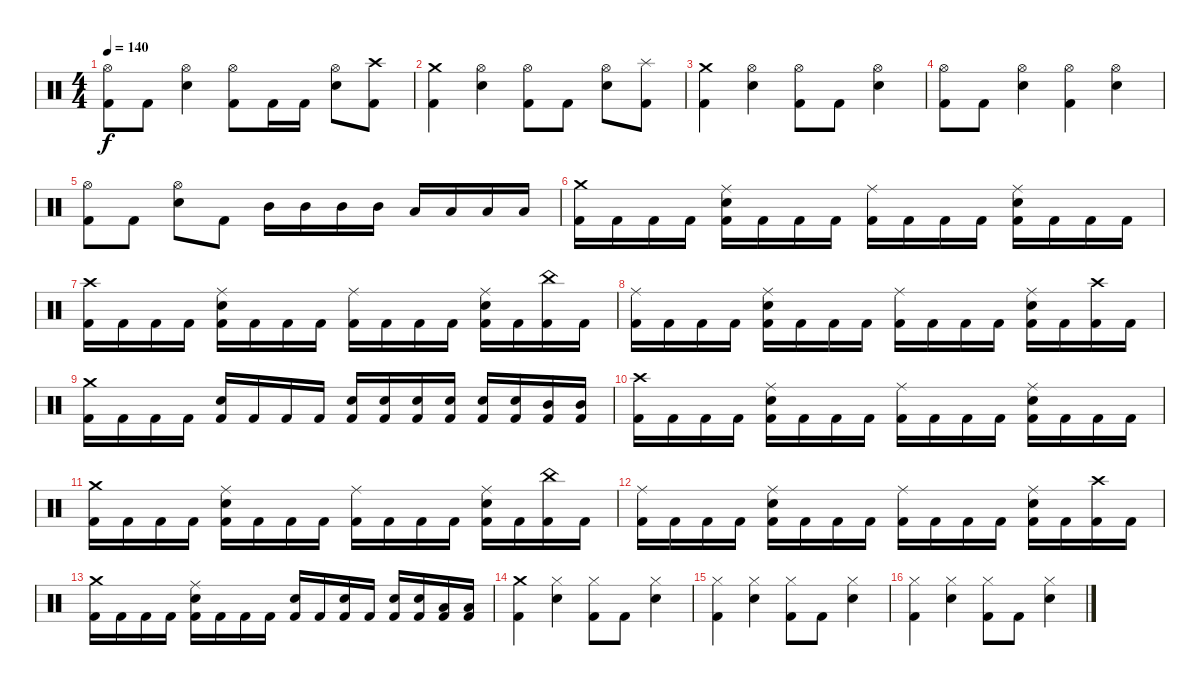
\track "" {instrument percussion}
\staff {score}
\articulation defaults
\ts (4 4)
\tempo 140
\clef neutral
\ks c
("Hi-Hat (open)" "Kick (hit) 2").8{dy f} "Kick (hit) 2".8 ("Hi-Hat (open)" "Electric Snare (hit)").4 ("Hi-Hat (open)" "Kick (hit) 2").8 "Kick (hit) 2".16 "Kick (hit) 2".16 ("Hi-Hat (open)" "Electric Snare (hit)").8 ("Crash high (hit)" "Kick (hit) 2").8 |
("Crash medium (hit)" "Kick (hit) 2").4 ("Hi-Hat (open)" "Electric Snare (hit)").4 ("Hi-Hat (open)" "Kick (hit) 2").8 "Kick (hit) 2".8 ("Hi-Hat (open)" "Electric Snare (hit)").8 ("Splash (hit)" "Kick (hit) 2").8 |
("Crash medium (hit)" "Kick (hit) 2").4 ("Hi-Hat (open)" "Electric Snare (hit)").4 ("Hi-Hat (open)" "Kick (hit) 2").8 "Kick (hit) 2".8 ("Hi-Hat (open)" "Electric Snare (hit)").4 |
("Hi-Hat (open)" "Kick (hit) 2").8 "Kick (hit) 2".8 ("Hi-Hat (open)" "Electric Snare (hit)").4 ("Hi-Hat (open)" "Kick (hit) 2").4 ("Hi-Hat (open)" "Electric Snare (hit)").4 |
("Hi-Hat (open)" "Kick (hit) 2").8 "Kick (hit) 2".8 ("Hi-Hat (open)" "Electric Snare (hit)").8 "Kick (hit) 2".8 "Mid Tom (hit)".16 "Mid Tom (hit)".16 "Mid Tom (hit)".16 "Mid Tom (hit)".16 "Low Tom (hit)".16 "Low Tom (hit)".16 "Low Tom (hit)".16 "Low Tom (hit)".16 |
("Crash medium (hit)" "Kick (hit) 2").16 "Kick (hit) 2".16 "Kick (hit) 2".16 "Kick (hit) 2".16 ("Ride (middle)" "Electric Snare (hit)" "Kick (hit) 2").16 "Kick (hit) 2".16 "Kick (hit) 2".16 "Kick (hit) 2".16 ("Ride (middle)" "Kick (hit) 2").16 "Kick (hit) 2".16 "Kick (hit) 2".16 "Kick (hit) 2".16 ("Ride (middle)" "Electric Snare (hit)" "Kick (hit) 2").16 "Kick (hit) 2".16 "Kick (hit) 2".16 "Kick (hit) 2".16 |
("Crash high (hit)" "Kick (hit) 2").16 "Kick (hit) 2".16 "Kick (hit) 2".16 "Kick (hit) 2".16 ("Ride (middle)" "Electric Snare (hit)" "Kick (hit) 2").16 "Kick (hit) 2".16 "Kick (hit) 2".16 "Kick (hit) 2".16 ("Ride (middle)" "Kick (hit) 2").16 "Kick (hit) 2".16 "Kick (hit) 2".16 "Kick (hit) 2".16 ("Ride (middle)" "Electric Snare (hit)" "Kick (hit) 2").16 "Kick (hit) 2".16 ("China (hit)" "Kick (hit) 2").16 "Kick (hit) 2".16 |
("Ride (middle)" "Kick (hit) 2").16 "Kick (hit) 2".16 "Kick (hit) 2".16 "Kick (hit) 2".16 ("Ride (middle)" "Electric Snare (hit)" "Kick (hit) 2").16 "Kick (hit) 2".16 "Kick (hit) 2".16 "Kick (hit) 2".16 ("Ride (middle)" "Kick (hit) 2").16 "Kick (hit) 2".16 "Kick (hit) 2".16 "Kick (hit) 2".16 ("Ride (middle)" "Electric Snare (hit)" "Kick (hit) 2").16 "Kick (hit) 2".16 ("Crash high (hit)" "Kick (hit) 2").16 "Kick (hit) 2".16 |
("Crash medium (hit)" "Kick (hit) 2").16 "Kick (hit) 2".16 "Kick (hit) 2".16 "Kick (hit) 2".16 ("Electric Snare (hit)" "Kick (hit) 2").16 "Kick (hit) 2".16 "Kick (hit) 2".16 "Kick (hit) 2".16 ("Electric Snare (hit)" "Kick (hit) 2").16 ("Electric Snare (hit)" "Kick (hit) 2").16 ("Electric Snare (hit)" "Kick (hit) 2").16 ("Electric Snare (hit)" "Kick (hit) 2").16 ("Electric Snare (hit)" "Kick (hit) 2").16 ("Electric Snare (hit)" "Kick (hit) 2").16 ("Mid Tom (hit)" "Kick (hit) 2").16 ("Mid Tom (hit)" "Kick (hit) 2").16 |
("Crash high (hit)" "Kick (hit) 2").16 "Kick (hit) 2".16 "Kick (hit) 2".16 "Kick (hit) 2".16 ("Ride (middle)" "Electric Snare (hit)" "Kick (hit) 2").16 "Kick (hit) 2".16 "Kick (hit) 2".16 "Kick (hit) 2".16 ("Ride (middle)" "Kick (hit) 2").16 "Kick (hit) 2".16 "Kick (hit) 2".16 "Kick (hit) 2".16 ("Ride (middle)" "Electric Snare (hit)" "Kick (hit) 2").16 "Kick (hit) 2".16 "Kick (hit) 2".16 "Kick (hit) 2".16 |
("Crash medium (hit)" "Kick (hit) 2").16 "Kick (hit) 2".16 "Kick (hit) 2".16 "Kick (hit) 2".16 ("Ride (middle)" "Electric Snare (hit)" "Kick (hit) 2").16 "Kick (hit) 2".16 "Kick (hit) 2".16 "Kick (hit) 2".16 ("Ride (middle)" "Kick (hit) 2").16 "Kick (hit) 2".16 "Kick (hit) 2".16 "Kick (hit) 2".16 ("Ride (middle)" "Electric Snare (hit)" "Kick (hit) 2").16 "Kick (hit) 2".16 ("China (hit)" "Kick (hit) 2").16 "Kick (hit) 2".16 |
("Ride (middle)" "Kick (hit) 2").16 "Kick (hit) 2".16 "Kick (hit) 2".16 "Kick (hit) 2".16 ("Ride (middle)" "Electric Snare (hit)" "Kick (hit) 2").16 "Kick (hit) 2".16 "Kick (hit) 2".16 "Kick (hit) 2".16 ("Ride (middle)" "Kick (hit) 2").16 "Kick (hit) 2".16 "Kick (hit) 2".16 "Kick (hit) 2".16 ("Ride (middle)" "Electric Snare (hit)" "Kick (hit) 2").16 "Kick (hit) 2".16 ("Crash high (hit)" "Kick (hit) 2").16 "Kick (hit) 2".16 |
("Crash medium (hit)" "Kick (hit) 2").16 "Kick (hit) 2".16 "Kick (hit) 2".16 "Kick (hit) 2".16 ("Ride (middle)" "Electric Snare (hit)" "Kick (hit) 2").16 "Kick (hit) 2".16 "Kick (hit) 2".16 "Kick (hit) 2".16 ("Electric Snare (hit)" "Kick (hit) 2").16 "Kick (hit) 2".16 ("Electric Snare (hit)" "Kick (hit) 2").16 "Kick (hit) 2".16 ("Electric Snare (hit)" "Kick (hit) 2").16 ("Electric Snare (hit)" "Kick (hit) 2").16 ("Low Tom (hit)" "Kick (hit) 2").16 ("Low Tom (hit)" "Kick (hit) 2").16 |
("Crash medium (hit)" "Kick (hit) 2").4 ("Hi-Hat (closed)" "Electric Snare (hit)").4 ("Hi-Hat (closed)" "Kick (hit) 2").8 "Kick (hit) 2".8 ("Hi-Hat (closed)" "Electric Snare (hit)").4 |
("Hi-Hat (closed)" "Kick (hit) 2").4 ("Hi-Hat (closed)" "Electric Snare (hit)").4 ("Hi-Hat (closed)" "Kick (hit) 2").8 "Kick (hit) 2".8 ("Hi-Hat (closed)" "Electric Snare (hit)").4 |
("Hi-Hat (closed)" "Kick (hit) 2").4 ("Hi-Hat (closed)" "Electric Snare (hit)").4 ("Hi-Hat (closed)" "Kick (hit) 2").8 "Kick (hit) 2".8 ("Hi-Hat (closed)" "Electric Snare (hit)").4
